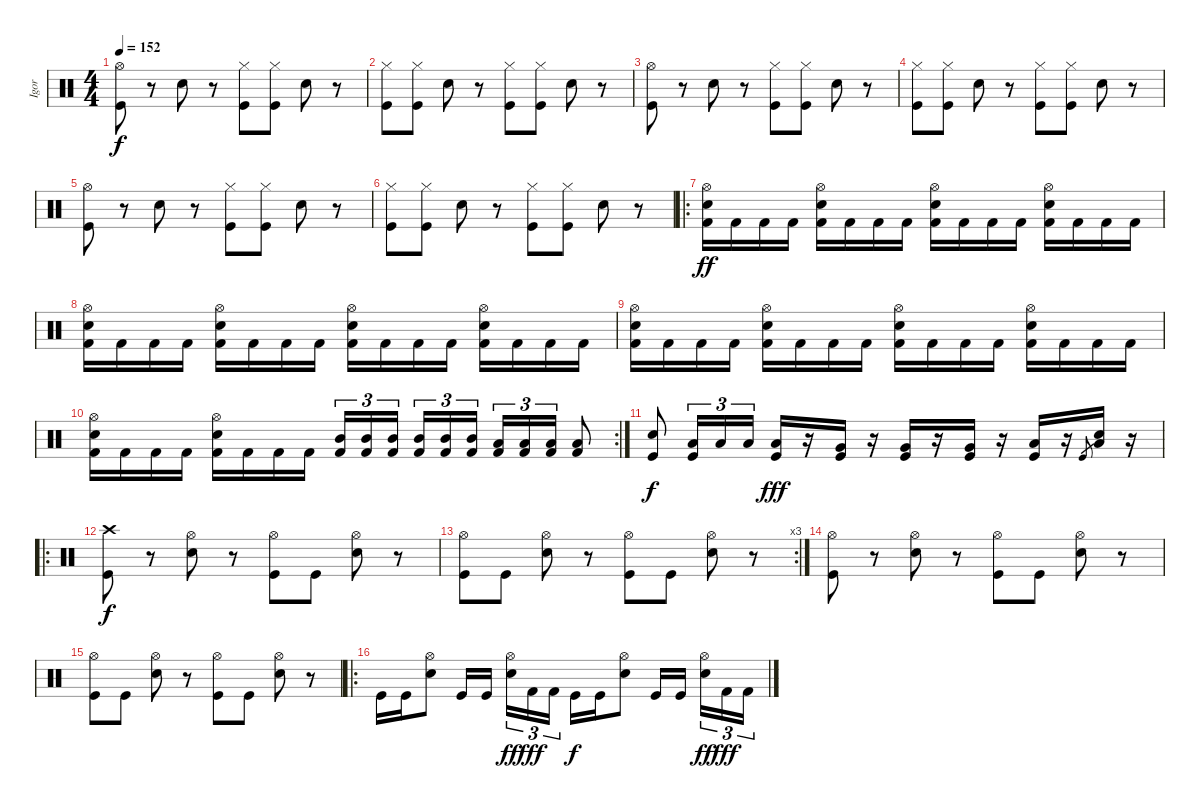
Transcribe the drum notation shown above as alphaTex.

\track ("Igor" "Igor") {instrument percussion}
\staff {score}
\articulation defaults
\ts (4 4)
\tempo 152
\clef neutral
\ks c
("Hi-Hat (open)" "Kick (hit)").8{dy f} r.8 "Snare (hit) 2".8 r.8 ("Hi-Hat (closed)" "Kick (hit)").8 ("Hi-Hat (closed)" "Kick (hit)").8 "Snare (hit) 2".8 r.8 |
("Hi-Hat (closed)" "Kick (hit)").8 ("Hi-Hat (closed)" "Kick (hit)").8 "Snare (hit) 2".8 r.8 ("Hi-Hat (closed)" "Kick (hit)").8 ("Hi-Hat (closed)" "Kick (hit)").8 "Snare (hit) 2".8 r.8 |
("Hi-Hat (open)" "Kick (hit)").8 r.8 "Snare (hit) 2".8 r.8 ("Hi-Hat (closed)" "Kick (hit)").8 ("Hi-Hat (closed)" "Kick (hit)").8 "Snare (hit) 2".8 r.8 |
("Hi-Hat (closed)" "Kick (hit)").8 ("Hi-Hat (closed)" "Kick (hit)").8 "Snare (hit) 2".8 r.8 ("Hi-Hat (closed)" "Kick (hit)").8 ("Hi-Hat (closed)" "Kick (hit)").8 "Snare (hit) 2".8 r.8 |
("Hi-Hat (open)" "Kick (hit)").8 r.8 "Snare (hit) 2".8 r.8 ("Hi-Hat (closed)" "Kick (hit)").8 ("Hi-Hat (closed)" "Kick (hit)").8 "Snare (hit) 2".8 r.8 |
("Hi-Hat (closed)" "Kick (hit)").8 ("Hi-Hat (closed)" "Kick (hit)").8 "Snare (hit) 2".8 r.8 ("Hi-Hat (closed)" "Kick (hit)").8 ("Hi-Hat (closed)" "Kick (hit)").8 "Snare (hit) 2".8 r.8 |
\ro
("Hi-Hat (open)" "Snare (hit) 2" "Kick (hit) 2").16{dy ff} "Kick (hit) 2".16 "Kick (hit) 2".16 "Kick (hit) 2".16 ("Hi-Hat (open)" "Snare (hit) 2" "Kick (hit) 2").16 "Kick (hit) 2".16 "Kick (hit) 2".16 "Kick (hit) 2".16 ("Hi-Hat (open)" "Snare (hit) 2" "Kick (hit) 2").16 "Kick (hit) 2".16 "Kick (hit) 2".16 "Kick (hit) 2".16 ("Hi-Hat (open)" "Snare (hit) 2" "Kick (hit) 2").16 "Kick (hit) 2".16 "Kick (hit) 2".16 "Kick (hit) 2".16 |
("Hi-Hat (open)" "Snare (hit) 2" "Kick (hit) 2").16 "Kick (hit) 2".16 "Kick (hit) 2".16 "Kick (hit) 2".16 ("Hi-Hat (open)" "Snare (hit) 2" "Kick (hit) 2").16 "Kick (hit) 2".16 "Kick (hit) 2".16 "Kick (hit) 2".16 ("Hi-Hat (open)" "Snare (hit) 2" "Kick (hit) 2").16 "Kick (hit) 2".16 "Kick (hit) 2".16 "Kick (hit) 2".16 ("Hi-Hat (open)" "Snare (hit) 2" "Kick (hit) 2").16 "Kick (hit) 2".16 "Kick (hit) 2".16 "Kick (hit) 2".16 |
("Hi-Hat (open)" "Snare (hit) 2" "Kick (hit) 2").16 "Kick (hit) 2".16 "Kick (hit) 2".16 "Kick (hit) 2".16 ("Hi-Hat (open)" "Snare (hit) 2" "Kick (hit) 2").16 "Kick (hit) 2".16 "Kick (hit) 2".16 "Kick (hit) 2".16 ("Hi-Hat (open)" "Snare (hit) 2" "Kick (hit) 2").16 "Kick (hit) 2".16 "Kick (hit) 2".16 "Kick (hit) 2".16 ("Hi-Hat (open)" "Snare (hit) 2" "Kick (hit) 2").16 "Kick (hit) 2".16 "Kick (hit) 2".16 "Kick (hit) 2".16 |
\rc 2
("Hi-Hat (open)" "Snare (hit) 2" "Kick (hit) 2").16 "Kick (hit) 2".16 "Kick (hit) 2".16 "Kick (hit) 2".16 ("Hi-Hat (open)" "Snare (hit) 2" "Kick (hit) 2").16 "Kick (hit) 2".16 "Kick (hit) 2".16 "Kick (hit) 2".16 ("Mid Tom (hit)" "Kick (hit) 2").16{tu (3 2)} ("Mid Tom (hit)" "Kick (hit) 2").16{tu (3 2)} ("Mid Tom (hit)" "Kick (hit) 2").16{tu (3 2)} ("Mid Tom (hit)" "Kick (hit) 2").16{tu (3 2)} ("Mid Tom (hit)" "Kick (hit) 2").16{tu (3 2)} ("Mid Tom (hit)" "Kick (hit) 2").16{tu (3 2)} ("Low Tom (hit)" "Kick (hit) 2").16{tu (3 2)} ("Low Tom (hit)" "Kick (hit) 2").16{tu (3 2)} ("Low Tom (hit)" "Kick (hit) 2").16{tu (3 2)} ("Low Tom (hit)" "Kick (hit) 2").8 |
("Snare (hit) 2" "Kick (hit)").8{dy f} ("Low Tom (hit)" "Kick (hit)").16{tu (3 2)} "Low Tom (hit)".16{tu (3 2)} "Low Tom (hit)".16{tu (3 2)} ("Low Tom (hit)" "Kick (hit)").16{dy fff} r.16 ("Very Low Tom (hit)" "Kick (hit)").16 r.16 ("Very Low Tom (hit)" "Kick (hit)").16 r.16 ("Very Low Tom (hit)" "Kick (hit)").16 r.16 ("Low Floor Tom (hit)" "Kick (hit)").16 r.16 "Kick (hit)".8{gr} ("Low Floor Tom (hit)" "Snare (hit) 2").16 r.16 |
\ro
("Crash high (hit)" "Kick (hit)").8{dy f} r.8 ("Hi-Hat (open)" "Snare (hit) 2").8 r.8 ("Hi-Hat (open)" "Kick (hit)").8 "Kick (hit)".8 ("Hi-Hat (open)" "Snare (hit) 2").8 r.8 |
\rc 3
("Hi-Hat (open)" "Kick (hit)").8 "Kick (hit)".8 ("Hi-Hat (open)" "Snare (hit) 2").8 r.8 ("Hi-Hat (open)" "Kick (hit)").8 "Kick (hit)".8 ("Hi-Hat (open)" "Snare (hit) 2").8 r.8 |
("Hi-Hat (open)" "Kick (hit)").8 r.8 ("Hi-Hat (open)" "Snare (hit) 2").8 r.8 ("Hi-Hat (open)" "Kick (hit)").8 "Kick (hit)".8 ("Hi-Hat (open)" "Snare (hit) 2").8 r.8 |
("Hi-Hat (open)" "Kick (hit)").8 "Kick (hit)".8 ("Hi-Hat (open)" "Snare (hit) 2").8 r.8 ("Hi-Hat (open)" "Kick (hit)").8 "Kick (hit)".8 ("Hi-Hat (open)" "Snare (hit) 2").8 r.8 |
\ro "Kick (hit)".16 "Kick (hit)".16
("Hi-Hat (open)" "Snare (hit) 2").8 "Kick (hit)".16 "Kick (hit)".16 ("Hi-Hat (open)" "Snare (hit) 2").16{tu (3 2) dy ff} "Kick (hit) 2".16{tu (3 2) dy fff} "Kick (hit) 2".16{tu (3 2)} "Kick (hit)".16{dy f} "Kick (hit)".16 ("Hi-Hat (open)" "Snare (hit) 2").8 "Kick (hit)".16 "Kick (hit)".16 ("Hi-Hat (open)" "Snare (hit) 2").16{tu (3 2) dy ff} "Kick (hit) 2".16{tu (3 2) dy fff} "Kick (hit) 2".16{tu (3 2)}
